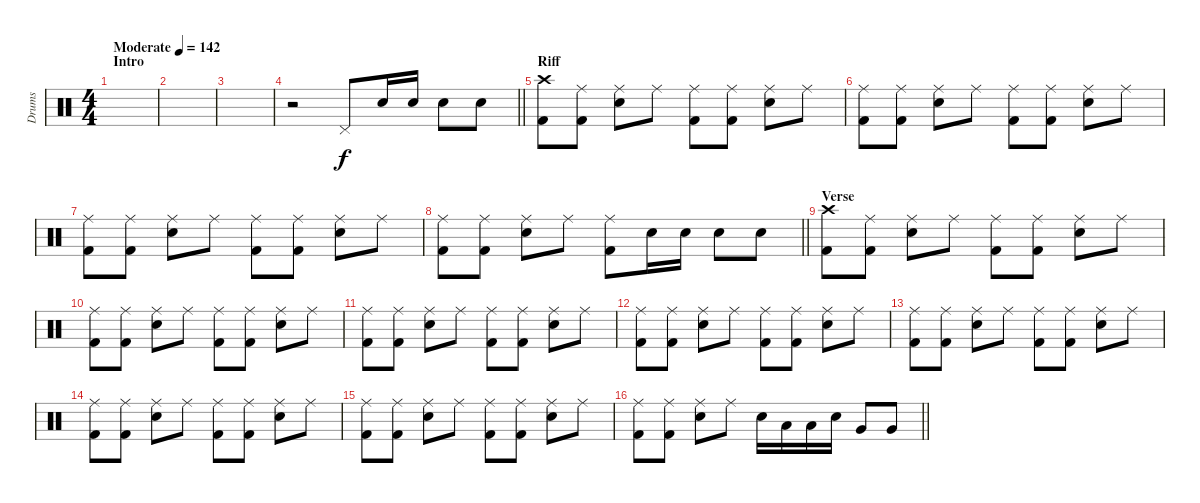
\track ("Drums" "Drums") {instrument percussion}
\staff {score}
\articulation defaults
\ts (4 4)
\section ("" "Intro")
\tempo (142 "Moderate")
\clef neutral
\ks c
|
|
|
\barLineRight lightlight
r.2 "Pedal Hi-Hat (hit)".8 "Electric Snare (hit)".16 "Electric Snare (hit)".16 "Electric Snare (hit)".8 "Electric Snare (hit)".8 |
\section ("" "Riff")
("Crash high (hit)" "Kick (hit) 2").8 ("Ride (middle)" "Kick (hit) 2").8 ("Ride (middle)" "Electric Snare (hit)").8 "Ride (middle)".8 ("Ride (middle)" "Kick (hit) 2").8 ("Ride (middle)" "Kick (hit) 2").8 ("Ride (middle)" "Electric Snare (hit)").8 "Ride (middle)".8 |
("Ride (middle)" "Kick (hit) 2").8 ("Ride (middle)" "Kick (hit) 2").8 ("Ride (middle)" "Electric Snare (hit)").8 "Ride (middle)".8 ("Ride (middle)" "Kick (hit) 2").8 ("Ride (middle)" "Kick (hit) 2").8 ("Ride (middle)" "Electric Snare (hit)").8 "Ride (middle)".8 |
("Ride (middle)" "Kick (hit) 2").8 ("Ride (middle)" "Kick (hit) 2").8 ("Ride (middle)" "Electric Snare (hit)").8 "Ride (middle)".8 ("Ride (middle)" "Kick (hit) 2").8 ("Ride (middle)" "Kick (hit) 2").8 ("Ride (middle)" "Electric Snare (hit)").8 "Ride (middle)".8 |
\barLineRight lightlight
("Ride (middle)" "Kick (hit) 2").8 ("Ride (middle)" "Kick (hit) 2").8 ("Ride (middle)" "Electric Snare (hit)").8 "Ride (middle)".8 ("Ride (middle)" "Kick (hit) 2").8 "Electric Snare (hit)".16 "Electric Snare (hit)".16 "Electric Snare (hit)".8 "Electric Snare (hit)".8 |
\section ("" "Verse")
("Crash high (hit)" "Kick (hit) 2").8 ("Ride (middle)" "Kick (hit) 2").8 ("Ride (middle)" "Electric Snare (hit)").8 "Ride (middle)".8 ("Ride (middle)" "Kick (hit) 2").8 ("Ride (middle)" "Kick (hit) 2").8 ("Ride (middle)" "Electric Snare (hit)").8 "Ride (middle)".8 |
("Ride (middle)" "Kick (hit) 2").8 ("Ride (middle)" "Kick (hit) 2").8 ("Ride (middle)" "Electric Snare (hit)").8 "Ride (middle)".8 ("Ride (middle)" "Kick (hit) 2").8 ("Ride (middle)" "Kick (hit) 2").8 ("Ride (middle)" "Electric Snare (hit)").8 "Ride (middle)".8 |
("Ride (middle)" "Kick (hit) 2").8 ("Ride (middle)" "Kick (hit) 2").8 ("Ride (middle)" "Electric Snare (hit)").8 "Ride (middle)".8 ("Ride (middle)" "Kick (hit) 2").8 ("Ride (middle)" "Kick (hit) 2").8 ("Ride (middle)" "Electric Snare (hit)").8 "Ride (middle)".8 |
("Ride (middle)" "Kick (hit) 2").8 ("Ride (middle)" "Kick (hit) 2").8 ("Ride (middle)" "Electric Snare (hit)").8 "Ride (middle)".8 ("Ride (middle)" "Kick (hit) 2").8 ("Ride (middle)" "Kick (hit) 2").8 ("Ride (middle)" "Electric Snare (hit)").8 "Ride (middle)".8 |
("Ride (middle)" "Kick (hit) 2").8 ("Ride (middle)" "Kick (hit) 2").8 ("Ride (middle)" "Electric Snare (hit)").8 "Ride (middle)".8 ("Ride (middle)" "Kick (hit) 2").8 ("Ride (middle)" "Kick (hit) 2").8 ("Ride (middle)" "Electric Snare (hit)").8 "Ride (middle)".8 |
("Ride (middle)" "Kick (hit) 2").8 ("Ride (middle)" "Kick (hit) 2").8 ("Ride (middle)" "Electric Snare (hit)").8 "Ride (middle)".8 ("Ride (middle)" "Kick (hit) 2").8 ("Ride (middle)" "Kick (hit) 2").8 ("Ride (middle)" "Electric Snare (hit)").8 "Ride (middle)".8 |
("Ride (middle)" "Kick (hit) 2").8 ("Ride (middle)" "Kick (hit) 2").8 ("Ride (middle)" "Electric Snare (hit)").8 "Ride (middle)".8 ("Ride (middle)" "Kick (hit) 2").8 ("Ride (middle)" "Kick (hit) 2").8 ("Ride (middle)" "Electric Snare (hit)").8 "Ride (middle)".8 |
\barLineRight lightlight
("Ride (middle)" "Kick (hit) 2").8 ("Ride (middle)" "Kick (hit) 2").8 ("Ride (middle)" "Electric Snare (hit)").8 "Ride (middle)".8 "Electric Snare (hit)".16 "Low Tom (hit)".16 "Low Tom (hit)".16 "Electric Snare (hit)".16 "Very Low Tom (hit)".8 "Very Low Tom (hit)".8
